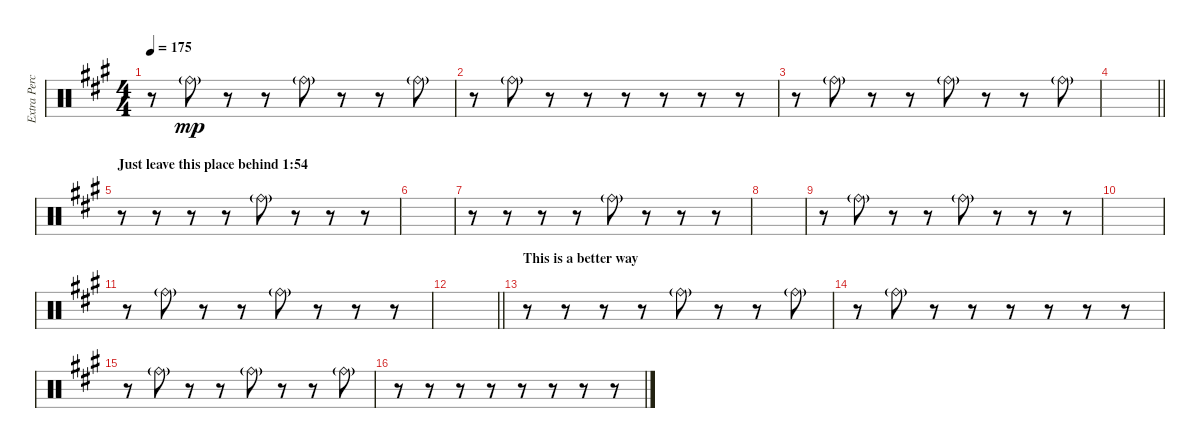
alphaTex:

\track ("Extra Percussion" "Extra Perc") {instrument percussion}
\staff {score}
\articulation defaults
\ts (4 4)
\tempo 175
\clef neutral
\ks f#minor
r.8{dy mp} "Ride (bell)"{g}.8 r.8 r.8 "Ride (bell)"{g}.8 r.8 r.8 "Ride (bell)"{g}.8 |
r.8 "Ride (bell)"{g}.8 r.8 r.8 r.8 r.8 r.8 r.8 |
r.8 "Ride (bell)"{g}.8 r.8 r.8 "Ride (bell)"{g}.8 r.8 r.8 "Ride (bell)"{g}.8 |
\barLineRight lightlight
|
\section ("" "Just leave this place behind 1:54")
r.8 r.8 r.8 r.8 "Ride (bell)"{g}.8 r.8 r.8 r.8 |
|
r.8 r.8 r.8 r.8 "Ride (bell)"{g}.8 r.8 r.8 r.8 |
|
r.8 "Ride (bell)"{g}.8 r.8 r.8 "Ride (bell)"{g}.8 r.8 r.8 r.8 |
|
r.8 "Ride (bell)"{g}.8 r.8 r.8 "Ride (bell)"{g}.8 r.8 r.8 r.8 |
\barLineRight lightlight
|
\section ("" "This is a better way")
r.8 r.8 r.8 r.8 "Ride (bell)"{g}.8 r.8 r.8 "Ride (bell)"{g}.8 |
r.8 "Ride (bell)"{g}.8 r.8 r.8 r.8 r.8 r.8 r.8 |
r.8 "Ride (bell)"{g}.8 r.8 r.8 "Ride (bell)"{g}.8 r.8 r.8 "Ride (bell)"{g}.8 |
r.8 r.8 r.8 r.8 r.8 r.8 r.8 r.8
